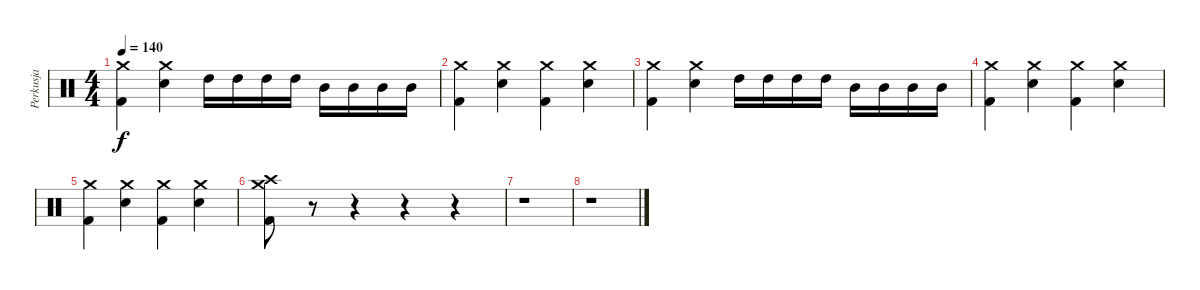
\track ("Perkusja" "Perkusja") {instrument percussion}
\staff {score}
\articulation defaults
\ts (4 4)
\tempo 140
\clef neutral
\ks c
("Crash medium (hit)" "Kick (hit) 2").4{dy f} ("Crash medium (hit)" "Snare (hit) 2").4 "High Tom (hit)".16 "High Tom (hit)".16 "High Tom (hit)".16 "High Tom (hit)".16 "Mid Tom (hit)".16 "Mid Tom (hit)".16 "Mid Tom (hit)".16 "Mid Tom (hit)".16 |
("Crash medium (hit)" "Kick (hit) 2").4 ("Crash medium (hit)" "Snare (hit) 2").4 ("Crash medium (hit)" "Kick (hit) 2").4 ("Crash medium (hit)" "Snare (hit) 2").4 |
("Crash medium (hit)" "Kick (hit) 2").4 ("Crash medium (hit)" "Snare (hit) 2").4 "High Tom (hit)".16 "High Tom (hit)".16 "High Tom (hit)".16 "High Tom (hit)".16 "Mid Tom (hit)".16 "Mid Tom (hit)".16 "Mid Tom (hit)".16 "Mid Tom (hit)".16 |
("Crash medium (hit)" "Kick (hit) 2").4 ("Crash medium (hit)" "Snare (hit) 2").4 ("Crash medium (hit)" "Kick (hit) 2").4 ("Crash medium (hit)" "Snare (hit) 2").4 |
("Crash medium (hit)" "Kick (hit) 2").4 ("Crash medium (hit)" "Snare (hit) 2").4 ("Crash medium (hit)" "Kick (hit) 2").4 ("Crash medium (hit)" "Snare (hit) 2").4 |
("Crash medium (hit)" "Crash high (hit)" "Kick (hit) 2").8 r.8 r.4 r.4 r.4 |
r.1 |
r.1
